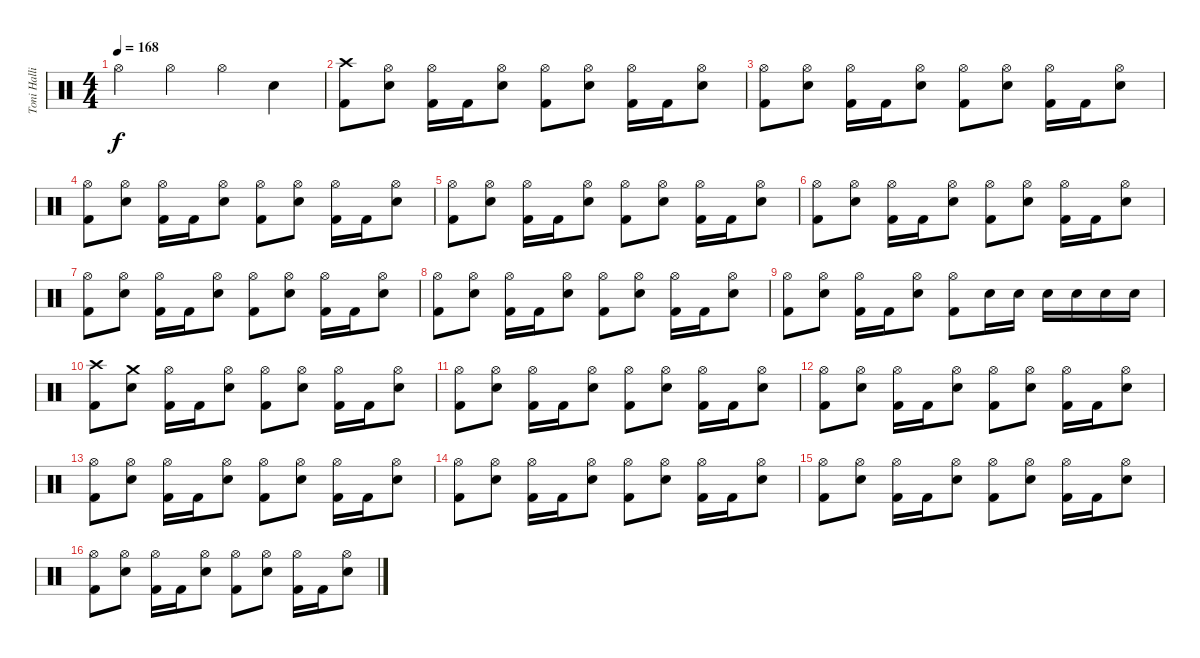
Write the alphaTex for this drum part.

\track ("Toni Hallio" "Toni Halli") {instrument percussion}
\staff {score}
\articulation defaults
\ts (4 4)
\tempo 168
\clef neutral
\ks c "Hi-Hat (open)".4{dy f} "Hi-Hat (open)".4 "Hi-Hat (open)".4 "Snare (hit) 2".4
|
("Crash high (hit)" "Kick (hit) 2").8 ("Hi-Hat (open)" "Snare (hit) 2").8 ("Hi-Hat (open)" "Kick (hit) 2").16 "Kick (hit) 2".16 ("Hi-Hat (open)" "Snare (hit) 2").8 ("Hi-Hat (open)" "Kick (hit) 2").8 ("Hi-Hat (open)" "Snare (hit) 2").8 ("Hi-Hat (open)" "Kick (hit) 2").16 "Kick (hit) 2".16 ("Hi-Hat (open)" "Snare (hit) 2").8 |
("Hi-Hat (open)" "Kick (hit) 2").8 ("Hi-Hat (open)" "Snare (hit) 2").8 ("Hi-Hat (open)" "Kick (hit) 2").16 "Kick (hit) 2".16 ("Hi-Hat (open)" "Snare (hit) 2").8 ("Hi-Hat (open)" "Kick (hit) 2").8 ("Hi-Hat (open)" "Snare (hit) 2").8 ("Hi-Hat (open)" "Kick (hit) 2").16 "Kick (hit) 2".16 ("Hi-Hat (open)" "Snare (hit) 2").8 |
("Hi-Hat (open)" "Kick (hit) 2").8 ("Hi-Hat (open)" "Snare (hit) 2").8 ("Hi-Hat (open)" "Kick (hit) 2").16 "Kick (hit) 2".16 ("Hi-Hat (open)" "Snare (hit) 2").8 ("Hi-Hat (open)" "Kick (hit) 2").8 ("Hi-Hat (open)" "Snare (hit) 2").8 ("Hi-Hat (open)" "Kick (hit) 2").16 "Kick (hit) 2".16 ("Hi-Hat (open)" "Snare (hit) 2").8 |
("Hi-Hat (open)" "Kick (hit) 2").8 ("Hi-Hat (open)" "Snare (hit) 2").8 ("Hi-Hat (open)" "Kick (hit) 2").16 "Kick (hit) 2".16 ("Hi-Hat (open)" "Snare (hit) 2").8 ("Hi-Hat (open)" "Kick (hit) 2").8 ("Hi-Hat (open)" "Snare (hit) 2").8 ("Hi-Hat (open)" "Kick (hit) 2").16 "Kick (hit) 2".16 ("Hi-Hat (open)" "Snare (hit) 2").8 |
("Hi-Hat (open)" "Kick (hit) 2").8 ("Hi-Hat (open)" "Snare (hit) 2").8 ("Hi-Hat (open)" "Kick (hit) 2").16 "Kick (hit) 2".16 ("Hi-Hat (open)" "Snare (hit) 2").8 ("Hi-Hat (open)" "Kick (hit) 2").8 ("Hi-Hat (open)" "Snare (hit) 2").8 ("Hi-Hat (open)" "Kick (hit) 2").16 "Kick (hit) 2".16 ("Hi-Hat (open)" "Snare (hit) 2").8 |
("Hi-Hat (open)" "Kick (hit) 2").8 ("Hi-Hat (open)" "Snare (hit) 2").8 ("Hi-Hat (open)" "Kick (hit) 2").16 "Kick (hit) 2".16 ("Hi-Hat (open)" "Snare (hit) 2").8 ("Hi-Hat (open)" "Kick (hit) 2").8 ("Hi-Hat (open)" "Snare (hit) 2").8 ("Hi-Hat (open)" "Kick (hit) 2").16 "Kick (hit) 2".16 ("Hi-Hat (open)" "Snare (hit) 2").8 |
("Hi-Hat (open)" "Kick (hit) 2").8 ("Hi-Hat (open)" "Snare (hit) 2").8 ("Hi-Hat (open)" "Kick (hit) 2").16 "Kick (hit) 2".16 ("Hi-Hat (open)" "Snare (hit) 2").8 ("Hi-Hat (open)" "Kick (hit) 2").8 ("Hi-Hat (open)" "Snare (hit) 2").8 ("Hi-Hat (open)" "Kick (hit) 2").16 "Kick (hit) 2".16 ("Hi-Hat (open)" "Snare (hit) 2").8 |
("Hi-Hat (open)" "Kick (hit) 2").8 ("Hi-Hat (open)" "Snare (hit) 2").8 ("Hi-Hat (open)" "Kick (hit) 2").16 "Kick (hit) 2".16 ("Hi-Hat (open)" "Snare (hit) 2").8 ("Hi-Hat (open)" "Kick (hit) 2").8 "Snare (hit) 2".16 "Snare (hit) 2".16 "Snare (hit) 2".16 "Snare (hit) 2".16 "Snare (hit) 2".16 "Snare (hit) 2".16 |
("Crash high (hit)" "Kick (hit) 2").8 ("Crash medium (hit)" "Snare (hit) 2").8 ("Hi-Hat (open)" "Kick (hit) 2").16 "Kick (hit) 2".16 ("Hi-Hat (open)" "Snare (hit) 2").8 ("Hi-Hat (open)" "Kick (hit) 2").8 ("Hi-Hat (open)" "Snare (hit) 2").8 ("Hi-Hat (open)" "Kick (hit) 2").16 "Kick (hit) 2".16 ("Hi-Hat (open)" "Snare (hit) 2").8 |
("Hi-Hat (open)" "Kick (hit) 2").8 ("Hi-Hat (open)" "Snare (hit) 2").8 ("Hi-Hat (open)" "Kick (hit) 2").16 "Kick (hit) 2".16 ("Hi-Hat (open)" "Snare (hit) 2").8 ("Hi-Hat (open)" "Kick (hit) 2").8 ("Hi-Hat (open)" "Snare (hit) 2").8 ("Hi-Hat (open)" "Kick (hit) 2").16 "Kick (hit) 2".16 ("Hi-Hat (open)" "Snare (hit) 2").8 |
("Hi-Hat (open)" "Kick (hit) 2").8 ("Hi-Hat (open)" "Snare (hit) 2").8 ("Hi-Hat (open)" "Kick (hit) 2").16 "Kick (hit) 2".16 ("Hi-Hat (open)" "Snare (hit) 2").8 ("Hi-Hat (open)" "Kick (hit) 2").8 ("Hi-Hat (open)" "Snare (hit) 2").8 ("Hi-Hat (open)" "Kick (hit) 2").16 "Kick (hit) 2".16 ("Hi-Hat (open)" "Snare (hit) 2").8 |
("Hi-Hat (open)" "Kick (hit) 2").8 ("Hi-Hat (open)" "Snare (hit) 2").8 ("Hi-Hat (open)" "Kick (hit) 2").16 "Kick (hit) 2".16 ("Hi-Hat (open)" "Snare (hit) 2").8 ("Hi-Hat (open)" "Kick (hit) 2").8 ("Hi-Hat (open)" "Snare (hit) 2").8 ("Hi-Hat (open)" "Kick (hit) 2").16 "Kick (hit) 2".16 ("Hi-Hat (open)" "Snare (hit) 2").8 |
("Hi-Hat (open)" "Kick (hit) 2").8 ("Hi-Hat (open)" "Snare (hit) 2").8 ("Hi-Hat (open)" "Kick (hit) 2").16 "Kick (hit) 2".16 ("Hi-Hat (open)" "Snare (hit) 2").8 ("Hi-Hat (open)" "Kick (hit) 2").8 ("Hi-Hat (open)" "Snare (hit) 2").8 ("Hi-Hat (open)" "Kick (hit) 2").16 "Kick (hit) 2".16 ("Hi-Hat (open)" "Snare (hit) 2").8 |
("Hi-Hat (open)" "Kick (hit) 2").8 ("Hi-Hat (open)" "Snare (hit) 2").8 ("Hi-Hat (open)" "Kick (hit) 2").16 "Kick (hit) 2".16 ("Hi-Hat (open)" "Snare (hit) 2").8 ("Hi-Hat (open)" "Kick (hit) 2").8 ("Hi-Hat (open)" "Snare (hit) 2").8 ("Hi-Hat (open)" "Kick (hit) 2").16 "Kick (hit) 2".16 ("Hi-Hat (open)" "Snare (hit) 2").8 |
("Hi-Hat (open)" "Kick (hit) 2").8 ("Hi-Hat (open)" "Snare (hit) 2").8 ("Hi-Hat (open)" "Kick (hit) 2").16 "Kick (hit) 2".16 ("Hi-Hat (open)" "Snare (hit) 2").8 ("Hi-Hat (open)" "Kick (hit) 2").8 ("Hi-Hat (open)" "Snare (hit) 2").8 ("Hi-Hat (open)" "Kick (hit) 2").16 "Kick (hit) 2".16 ("Hi-Hat (open)" "Snare (hit) 2").8
